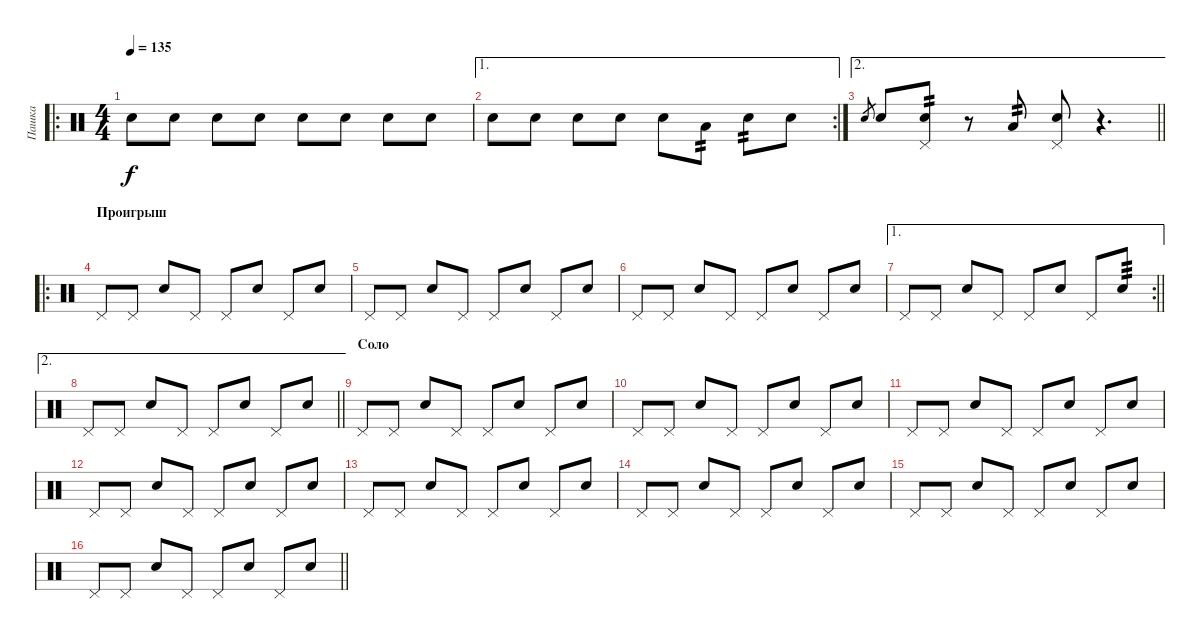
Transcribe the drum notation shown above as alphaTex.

\track ("Пашка" "Пашка") {instrument percussion}
\staff {score}
\articulation defaults
\ro
\ts (4 4)
\tempo 135
\clef neutral
\ks c "Snare (hit) 2".8{dy f} "Snare (hit) 2".8 "Snare (hit) 2".8 "Snare (hit) 2".8 "Snare (hit) 2".8 "Snare (hit) 2".8 "Snare (hit) 2".8 "Snare (hit) 2".8
|
\ae 1
\rc 2 "Snare (hit) 2".8 "Snare (hit) 2".8 "Snare (hit) 2".8 "Snare (hit) 2".8 "Snare (hit) 2".8 "Low Tom (hit)".8{tp 2} "Snare (hit) 2".8{tp 2} "Snare (hit) 2".8
|
\ae 2
\barLineRight lightlight "Snare (hit) 2".8{gr} "Snare (hit) 2".8
("Snare (hit) 2" "Pedal Hi-Hat (hit)").8{tp 2} r.8 "Low Tom (hit)".8{tp 2} ("Snare (hit) 2" "Pedal Hi-Hat (hit)").8 r.4{d} |
\ro
\section ("" "Проигрыш")
"Pedal Hi-Hat (hit)".8 "Pedal Hi-Hat (hit)".8 "Snare (hit) 2".8 "Pedal Hi-Hat (hit)".8 "Pedal Hi-Hat (hit)".8 "Snare (hit) 2".8 "Pedal Hi-Hat (hit)".8 "Snare (hit) 2".8 |
"Pedal Hi-Hat (hit)".8 "Pedal Hi-Hat (hit)".8 "Snare (hit) 2".8 "Pedal Hi-Hat (hit)".8 "Pedal Hi-Hat (hit)".8 "Snare (hit) 2".8 "Pedal Hi-Hat (hit)".8 "Snare (hit) 2".8 |
"Pedal Hi-Hat (hit)".8 "Pedal Hi-Hat (hit)".8 "Snare (hit) 2".8 "Pedal Hi-Hat (hit)".8 "Pedal Hi-Hat (hit)".8 "Snare (hit) 2".8 "Pedal Hi-Hat (hit)".8 "Snare (hit) 2".8 |
\ae 1
\rc 2
\barLineRight lightlight "Pedal Hi-Hat (hit)".8 "Pedal Hi-Hat (hit)".8 "Snare (hit) 2".8 "Pedal Hi-Hat (hit)".8 "Pedal Hi-Hat (hit)".8 "Snare (hit) 2".8 "Pedal Hi-Hat (hit)".8 "Snare (hit) 2".8{tp 3}
|
\ae 2
\barLineRight lightlight "Pedal Hi-Hat (hit)".8 "Pedal Hi-Hat (hit)".8 "Snare (hit) 2".8 "Pedal Hi-Hat (hit)".8 "Pedal Hi-Hat (hit)".8 "Snare (hit) 2".8 "Pedal Hi-Hat (hit)".8 "Snare (hit) 2".8
|
\section ("" "Соло")
"Pedal Hi-Hat (hit)".8 "Pedal Hi-Hat (hit)".8 "Snare (hit) 2".8 "Pedal Hi-Hat (hit)".8 "Pedal Hi-Hat (hit)".8 "Snare (hit) 2".8 "Pedal Hi-Hat (hit)".8 "Snare (hit) 2".8 |
"Pedal Hi-Hat (hit)".8 "Pedal Hi-Hat (hit)".8 "Snare (hit) 2".8 "Pedal Hi-Hat (hit)".8 "Pedal Hi-Hat (hit)".8 "Snare (hit) 2".8 "Pedal Hi-Hat (hit)".8 "Snare (hit) 2".8 |
"Pedal Hi-Hat (hit)".8 "Pedal Hi-Hat (hit)".8 "Snare (hit) 2".8 "Pedal Hi-Hat (hit)".8 "Pedal Hi-Hat (hit)".8 "Snare (hit) 2".8 "Pedal Hi-Hat (hit)".8 "Snare (hit) 2".8 |
"Pedal Hi-Hat (hit)".8 "Pedal Hi-Hat (hit)".8 "Snare (hit) 2".8 "Pedal Hi-Hat (hit)".8 "Pedal Hi-Hat (hit)".8 "Snare (hit) 2".8 "Pedal Hi-Hat (hit)".8 "Snare (hit) 2".8 |
"Pedal Hi-Hat (hit)".8 "Pedal Hi-Hat (hit)".8 "Snare (hit) 2".8 "Pedal Hi-Hat (hit)".8 "Pedal Hi-Hat (hit)".8 "Snare (hit) 2".8 "Pedal Hi-Hat (hit)".8 "Snare (hit) 2".8 |
"Pedal Hi-Hat (hit)".8 "Pedal Hi-Hat (hit)".8 "Snare (hit) 2".8 "Pedal Hi-Hat (hit)".8 "Pedal Hi-Hat (hit)".8 "Snare (hit) 2".8 "Pedal Hi-Hat (hit)".8 "Snare (hit) 2".8 |
"Pedal Hi-Hat (hit)".8 "Pedal Hi-Hat (hit)".8 "Snare (hit) 2".8 "Pedal Hi-Hat (hit)".8 "Pedal Hi-Hat (hit)".8 "Snare (hit) 2".8 "Pedal Hi-Hat (hit)".8 "Snare (hit) 2".8 |
\barLineRight lightlight "Pedal Hi-Hat (hit)".8 "Pedal Hi-Hat (hit)".8 "Snare (hit) 2".8 "Pedal Hi-Hat (hit)".8 "Pedal Hi-Hat (hit)".8 "Snare (hit) 2".8 "Pedal Hi-Hat (hit)".8 "Snare (hit) 2".8
